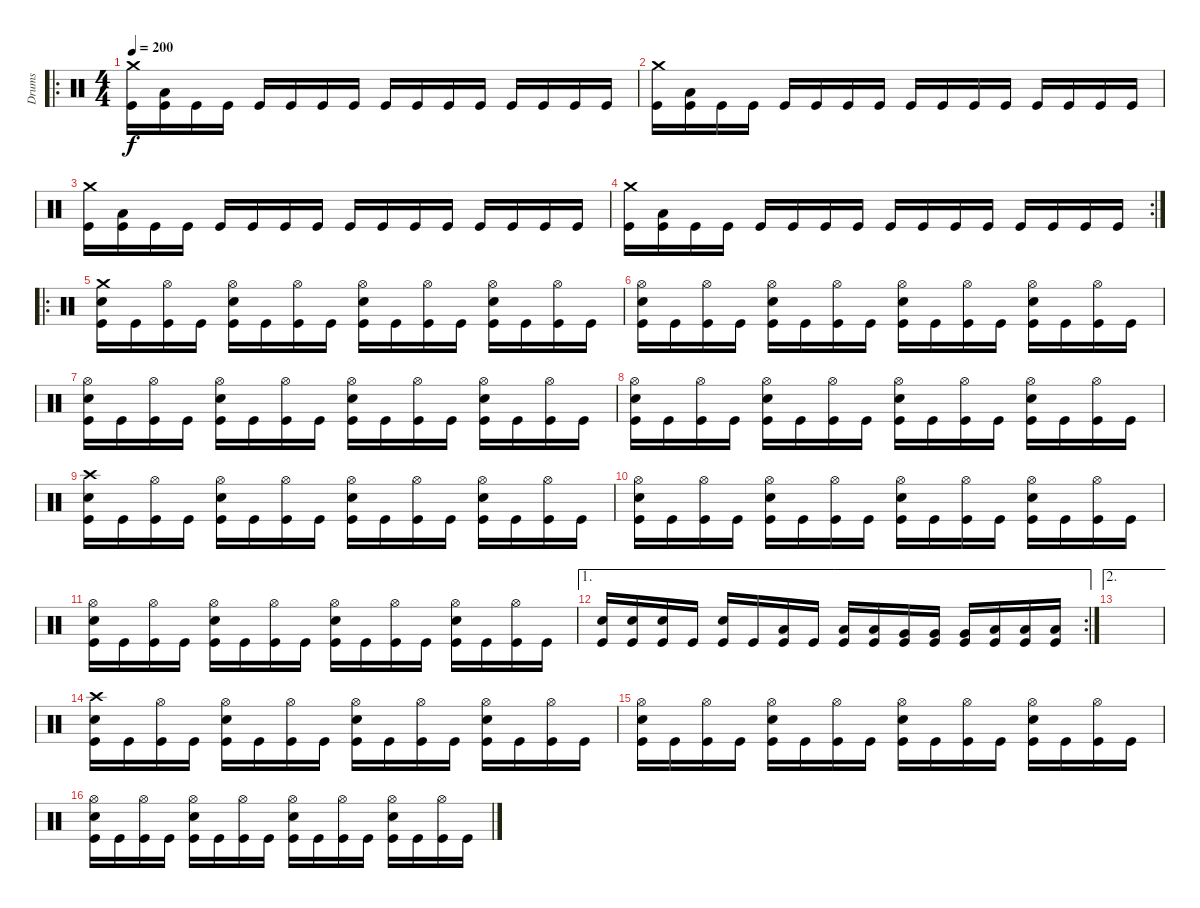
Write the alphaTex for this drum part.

\track ("Drums" "Drums") {instrument percussion}
\staff {score}
\articulation defaults
\ro
\ts (4 4)
\tempo 200
\clef neutral
\ks c
("Crash medium (hit)" "Kick (hit)").16{dy f} ("Low Tom (hit)" "Kick (hit)").16 "Kick (hit)".16 "Kick (hit)".16 "Kick (hit)".16 "Kick (hit)".16 "Kick (hit)".16 "Kick (hit)".16 "Kick (hit)".16 "Kick (hit)".16 "Kick (hit)".16 "Kick (hit)".16 "Kick (hit)".16 "Kick (hit)".16 "Kick (hit)".16 "Kick (hit)".16 |
("Crash medium (hit)" "Kick (hit)").16 ("Low Tom (hit)" "Kick (hit)").16 "Kick (hit)".16 "Kick (hit)".16 "Kick (hit)".16 "Kick (hit)".16 "Kick (hit)".16 "Kick (hit)".16 "Kick (hit)".16 "Kick (hit)".16 "Kick (hit)".16 "Kick (hit)".16 "Kick (hit)".16 "Kick (hit)".16 "Kick (hit)".16 "Kick (hit)".16 |
("Crash medium (hit)" "Kick (hit)").16 ("Low Tom (hit)" "Kick (hit)").16 "Kick (hit)".16 "Kick (hit)".16 "Kick (hit)".16 "Kick (hit)".16 "Kick (hit)".16 "Kick (hit)".16 "Kick (hit)".16 "Kick (hit)".16 "Kick (hit)".16 "Kick (hit)".16 "Kick (hit)".16 "Kick (hit)".16 "Kick (hit)".16 "Kick (hit)".16 |
\rc 2
("Crash medium (hit)" "Kick (hit)").16 ("Low Tom (hit)" "Kick (hit)").16 "Kick (hit)".16 "Kick (hit)".16 "Kick (hit)".16 "Kick (hit)".16 "Kick (hit)".16 "Kick (hit)".16 "Kick (hit)".16 "Kick (hit)".16 "Kick (hit)".16 "Kick (hit)".16 "Kick (hit)".16 "Kick (hit)".16 "Kick (hit)".16 "Kick (hit)".16 |
\ro
("Crash medium (hit)" "Electric Snare (hit)" "Kick (hit)").16 "Kick (hit)".16 ("Hi-Hat (open)" "Kick (hit)").16 "Kick (hit)".16 ("Hi-Hat (open)" "Electric Snare (hit)" "Kick (hit)").16 "Kick (hit)".16 ("Hi-Hat (open)" "Kick (hit)").16 "Kick (hit)".16 ("Hi-Hat (open)" "Electric Snare (hit)" "Kick (hit)").16 "Kick (hit)".16 ("Hi-Hat (open)" "Kick (hit)").16 "Kick (hit)".16 ("Hi-Hat (open)" "Electric Snare (hit)" "Kick (hit)").16 "Kick (hit)".16 ("Hi-Hat (open)" "Kick (hit)").16 "Kick (hit)".16 |
("Hi-Hat (open)" "Electric Snare (hit)" "Kick (hit)").16 "Kick (hit)".16 ("Hi-Hat (open)" "Kick (hit)").16 "Kick (hit)".16 ("Hi-Hat (open)" "Electric Snare (hit)" "Kick (hit)").16 "Kick (hit)".16 ("Hi-Hat (open)" "Kick (hit)").16 "Kick (hit)".16 ("Hi-Hat (open)" "Electric Snare (hit)" "Kick (hit)").16 "Kick (hit)".16 ("Hi-Hat (open)" "Kick (hit)").16 "Kick (hit)".16 ("Hi-Hat (open)" "Electric Snare (hit)" "Kick (hit)").16 "Kick (hit)".16 ("Hi-Hat (open)" "Kick (hit)").16 "Kick (hit)".16 |
("Hi-Hat (open)" "Electric Snare (hit)" "Kick (hit)").16 "Kick (hit)".16 ("Hi-Hat (open)" "Kick (hit)").16 "Kick (hit)".16 ("Hi-Hat (open)" "Electric Snare (hit)" "Kick (hit)").16 "Kick (hit)".16 ("Hi-Hat (open)" "Kick (hit)").16 "Kick (hit)".16 ("Hi-Hat (open)" "Electric Snare (hit)" "Kick (hit)").16 "Kick (hit)".16 ("Hi-Hat (open)" "Kick (hit)").16 "Kick (hit)".16 ("Hi-Hat (open)" "Electric Snare (hit)" "Kick (hit)").16 "Kick (hit)".16 ("Hi-Hat (open)" "Kick (hit)").16 "Kick (hit)".16 |
("Hi-Hat (open)" "Electric Snare (hit)" "Kick (hit)").16 "Kick (hit)".16 ("Hi-Hat (open)" "Kick (hit)").16 "Kick (hit)".16 ("Hi-Hat (open)" "Electric Snare (hit)" "Kick (hit)").16 "Kick (hit)".16 ("Hi-Hat (open)" "Kick (hit)").16 "Kick (hit)".16 ("Hi-Hat (open)" "Electric Snare (hit)" "Kick (hit)").16 "Kick (hit)".16 ("Hi-Hat (open)" "Kick (hit)").16 "Kick (hit)".16 ("Hi-Hat (open)" "Electric Snare (hit)" "Kick (hit)").16 "Kick (hit)".16 ("Hi-Hat (open)" "Kick (hit)").16 "Kick (hit)".16 |
("Crash high (hit)" "Electric Snare (hit)" "Kick (hit)").16 "Kick (hit)".16 ("Hi-Hat (open)" "Kick (hit)").16 "Kick (hit)".16 ("Hi-Hat (open)" "Electric Snare (hit)" "Kick (hit)").16 "Kick (hit)".16 ("Hi-Hat (open)" "Kick (hit)").16 "Kick (hit)".16 ("Hi-Hat (open)" "Electric Snare (hit)" "Kick (hit)").16 "Kick (hit)".16 ("Hi-Hat (open)" "Kick (hit)").16 "Kick (hit)".16 ("Hi-Hat (open)" "Electric Snare (hit)" "Kick (hit)").16 "Kick (hit)".16 ("Hi-Hat (open)" "Kick (hit)").16 "Kick (hit)".16 |
("Hi-Hat (open)" "Electric Snare (hit)" "Kick (hit)").16 "Kick (hit)".16 ("Hi-Hat (open)" "Kick (hit)").16 "Kick (hit)".16 ("Hi-Hat (open)" "Electric Snare (hit)" "Kick (hit)").16 "Kick (hit)".16 ("Hi-Hat (open)" "Kick (hit)").16 "Kick (hit)".16 ("Hi-Hat (open)" "Electric Snare (hit)" "Kick (hit)").16 "Kick (hit)".16 ("Hi-Hat (open)" "Kick (hit)").16 "Kick (hit)".16 ("Hi-Hat (open)" "Electric Snare (hit)" "Kick (hit)").16 "Kick (hit)".16 ("Hi-Hat (open)" "Kick (hit)").16 "Kick (hit)".16 |
("Hi-Hat (open)" "Electric Snare (hit)" "Kick (hit)").16 "Kick (hit)".16 ("Hi-Hat (open)" "Kick (hit)").16 "Kick (hit)".16 ("Hi-Hat (open)" "Electric Snare (hit)" "Kick (hit)").16 "Kick (hit)".16 ("Hi-Hat (open)" "Kick (hit)").16 "Kick (hit)".16 ("Hi-Hat (open)" "Electric Snare (hit)" "Kick (hit)").16 "Kick (hit)".16 ("Hi-Hat (open)" "Kick (hit)").16 "Kick (hit)".16 ("Hi-Hat (open)" "Electric Snare (hit)" "Kick (hit)").16 "Kick (hit)".16 ("Hi-Hat (open)" "Kick (hit)").16 "Kick (hit)".16 |
\ae 1
\rc 2
("Electric Snare (hit)" "Kick (hit)").16 ("Electric Snare (hit)" "Kick (hit)").16 ("Electric Snare (hit)" "Kick (hit)").16 "Kick (hit)".16 ("Electric Snare (hit)" "Kick (hit)").16 "Kick (hit)".16 ("Low Tom (hit)" "Kick (hit)").16 "Kick (hit)".16 ("Low Tom (hit)" "Kick (hit)").16 ("Low Tom (hit)" "Kick (hit)").16 ("Very Low Tom (hit)" "Kick (hit)").16 ("Very Low Tom (hit)" "Kick (hit)").16 ("Very Low Tom (hit)" "Kick (hit)").16 ("Low Floor Tom (hit)" "Kick (hit)").16 ("Low Floor Tom (hit)" "Kick (hit)").16 ("Low Floor Tom (hit)" "Kick (hit)").16 |
\ae 2
|
("Crash high (hit)" "Electric Snare (hit)" "Kick (hit)").16 "Kick (hit)".16 ("Hi-Hat (open)" "Kick (hit)").16 "Kick (hit)".16 ("Hi-Hat (open)" "Electric Snare (hit)" "Kick (hit)").16 "Kick (hit)".16 ("Hi-Hat (open)" "Kick (hit)").16 "Kick (hit)".16 ("Hi-Hat (open)" "Electric Snare (hit)" "Kick (hit)").16 "Kick (hit)".16 ("Hi-Hat (open)" "Kick (hit)").16 "Kick (hit)".16 ("Hi-Hat (open)" "Electric Snare (hit)" "Kick (hit)").16 "Kick (hit)".16 ("Hi-Hat (open)" "Kick (hit)").16 "Kick (hit)".16 |
("Hi-Hat (open)" "Electric Snare (hit)" "Kick (hit)").16 "Kick (hit)".16 ("Hi-Hat (open)" "Kick (hit)").16 "Kick (hit)".16 ("Hi-Hat (open)" "Electric Snare (hit)" "Kick (hit)").16 "Kick (hit)".16 ("Hi-Hat (open)" "Kick (hit)").16 "Kick (hit)".16 ("Hi-Hat (open)" "Electric Snare (hit)" "Kick (hit)").16 "Kick (hit)".16 ("Hi-Hat (open)" "Kick (hit)").16 "Kick (hit)".16 ("Hi-Hat (open)" "Electric Snare (hit)" "Kick (hit)").16 "Kick (hit)".16 ("Hi-Hat (open)" "Kick (hit)").16 "Kick (hit)".16 |
("Hi-Hat (open)" "Electric Snare (hit)" "Kick (hit)").16 "Kick (hit)".16 ("Hi-Hat (open)" "Kick (hit)").16 "Kick (hit)".16 ("Hi-Hat (open)" "Electric Snare (hit)" "Kick (hit)").16 "Kick (hit)".16 ("Hi-Hat (open)" "Kick (hit)").16 "Kick (hit)".16 ("Hi-Hat (open)" "Electric Snare (hit)" "Kick (hit)").16 "Kick (hit)".16 ("Hi-Hat (open)" "Kick (hit)").16 "Kick (hit)".16 ("Hi-Hat (open)" "Electric Snare (hit)" "Kick (hit)").16 "Kick (hit)".16 ("Hi-Hat (open)" "Kick (hit)").16 "Kick (hit)".16
